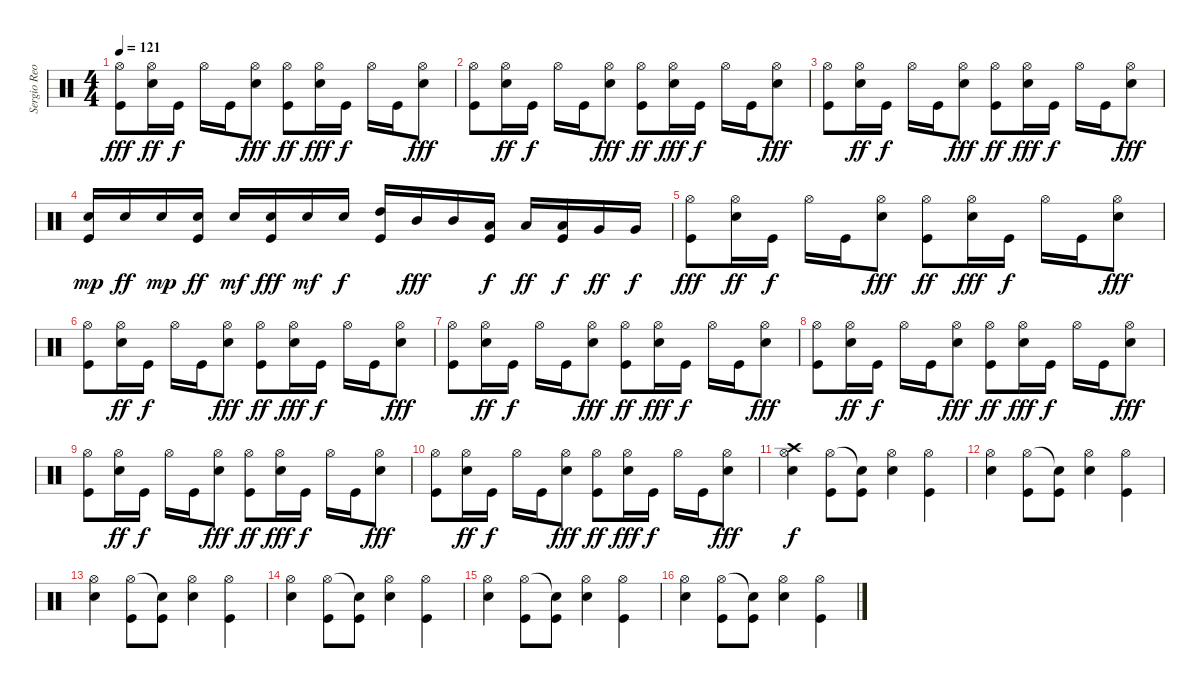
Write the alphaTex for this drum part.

\track ("Sergio Reoli" "Sergio Reo") {instrument percussion}
\staff {score}
\articulation defaults
\ts (4 4)
\tempo 121
\clef neutral
\ks c
("Kick (hit)" "Hi-Hat (open)").8{dy fff} ("Snare (hit) 2" "Hi-Hat (open)").16{dy ff} "Kick (hit)".16{dy f} "Hi-Hat (open)".16 "Kick (hit)".16 ("Snare (hit) 2" "Hi-Hat (open)").8{dy fff} ("Kick (hit)" "Hi-Hat (open)").8{dy ff} ("Snare (hit) 2" "Hi-Hat (open)").16{dy fff} "Kick (hit)".16{dy f} "Hi-Hat (open)".16 "Kick (hit)".16 ("Snare (hit) 2" "Hi-Hat (open)").8{dy fff} |
("Kick (hit)" "Hi-Hat (open)").8 ("Snare (hit) 2" "Hi-Hat (open)").16{dy ff} "Kick (hit)".16{dy f} "Hi-Hat (open)".16 "Kick (hit)".16 ("Snare (hit) 2" "Hi-Hat (open)").8{dy fff} ("Kick (hit)" "Hi-Hat (open)").8{dy ff} ("Snare (hit) 2" "Hi-Hat (open)").16{dy fff} "Kick (hit)".16{dy f} "Hi-Hat (open)".16 "Kick (hit)".16 ("Snare (hit) 2" "Hi-Hat (open)").8{dy fff} |
("Kick (hit)" "Hi-Hat (open)").8 ("Snare (hit) 2" "Hi-Hat (open)").16{dy ff} "Kick (hit)".16{dy f} "Hi-Hat (open)".16 "Kick (hit)".16 ("Snare (hit) 2" "Hi-Hat (open)").8{dy fff} ("Kick (hit)" "Hi-Hat (open)").8{dy ff} ("Snare (hit) 2" "Hi-Hat (open)").16{dy fff} "Kick (hit)".16{dy f} "Hi-Hat (open)".16 "Kick (hit)".16 ("Snare (hit) 2" "Hi-Hat (open)").8{dy fff} |
("Snare (hit) 2" "Kick (hit)").16{dy mp} "Snare (hit) 2".16{dy ff} "Snare (hit) 2".16{dy mp} ("Snare (hit) 2" "Kick (hit)").16{dy ff} "Snare (hit) 2".16{dy mf} ("Snare (hit) 2" "Kick (hit)").16{dy fff} "Snare (hit) 2".16{dy mf} "Snare (hit) 2".16{dy f} ("High Tom (hit)" "Kick (hit)").16 "Mid Tom (hit)".16{dy fff} "Mid Tom (hit)".16 ("Low Tom (hit)" "Kick (hit)").16{dy f} "Low Tom (hit)".16{dy ff} ("Low Tom (hit)" "Kick (hit)").16{dy f} "Very Low Tom (hit)".16{dy ff} "Very Low Tom (hit)".16{dy f} |
("Kick (hit)" "Hi-Hat (open)").8{dy fff} ("Snare (hit) 2" "Hi-Hat (open)").16{dy ff} "Kick (hit)".16{dy f} "Hi-Hat (open)".16 "Kick (hit)".16 ("Snare (hit) 2" "Hi-Hat (open)").8{dy fff} ("Kick (hit)" "Hi-Hat (open)").8{dy ff} ("Snare (hit) 2" "Hi-Hat (open)").16{dy fff} "Kick (hit)".16{dy f} "Hi-Hat (open)".16 "Kick (hit)".16 ("Snare (hit) 2" "Hi-Hat (open)").8{dy fff} |
("Kick (hit)" "Hi-Hat (open)").8 ("Snare (hit) 2" "Hi-Hat (open)").16{dy ff} "Kick (hit)".16{dy f} "Hi-Hat (open)".16 "Kick (hit)".16 ("Snare (hit) 2" "Hi-Hat (open)").8{dy fff} ("Kick (hit)" "Hi-Hat (open)").8{dy ff} ("Snare (hit) 2" "Hi-Hat (open)").16{dy fff} "Kick (hit)".16{dy f} "Hi-Hat (open)".16 "Kick (hit)".16 ("Snare (hit) 2" "Hi-Hat (open)").8{dy fff} |
("Kick (hit)" "Hi-Hat (open)").8 ("Snare (hit) 2" "Hi-Hat (open)").16{dy ff} "Kick (hit)".16{dy f} "Hi-Hat (open)".16 "Kick (hit)".16 ("Snare (hit) 2" "Hi-Hat (open)").8{dy fff} ("Kick (hit)" "Hi-Hat (open)").8{dy ff} ("Snare (hit) 2" "Hi-Hat (open)").16{dy fff} "Kick (hit)".16{dy f} "Hi-Hat (open)".16 "Kick (hit)".16 ("Snare (hit) 2" "Hi-Hat (open)").8{dy fff} |
("Kick (hit)" "Hi-Hat (open)").8 ("Snare (hit) 2" "Hi-Hat (open)").16{dy ff} "Kick (hit)".16{dy f} "Hi-Hat (open)".16 "Kick (hit)".16 ("Snare (hit) 2" "Hi-Hat (open)").8{dy fff} ("Kick (hit)" "Hi-Hat (open)").8{dy ff} ("Snare (hit) 2" "Hi-Hat (open)").16{dy fff} "Kick (hit)".16{dy f} "Hi-Hat (open)".16 "Kick (hit)".16 ("Snare (hit) 2" "Hi-Hat (open)").8{dy fff} |
("Kick (hit)" "Hi-Hat (open)").8 ("Snare (hit) 2" "Hi-Hat (open)").16{dy ff} "Kick (hit)".16{dy f} "Hi-Hat (open)".16 "Kick (hit)".16 ("Snare (hit) 2" "Hi-Hat (open)").8{dy fff} ("Kick (hit)" "Hi-Hat (open)").8{dy ff} ("Snare (hit) 2" "Hi-Hat (open)").16{dy fff} "Kick (hit)".16{dy f} "Hi-Hat (open)".16 "Kick (hit)".16 ("Snare (hit) 2" "Hi-Hat (open)").8{dy fff} |
("Kick (hit)" "Hi-Hat (open)").8 ("Snare (hit) 2" "Hi-Hat (open)").16{dy ff} "Kick (hit)".16{dy f} "Hi-Hat (open)".16 "Kick (hit)".16 ("Snare (hit) 2" "Hi-Hat (open)").8{dy fff} ("Kick (hit)" "Hi-Hat (open)").8{dy ff} ("Snare (hit) 2" "Hi-Hat (open)").16{dy fff} "Kick (hit)".16{dy f} "Hi-Hat (open)".16 "Kick (hit)".16 ("Snare (hit) 2" "Hi-Hat (open)").8{dy fff} |
("Snare (hit) 2" "Hi-Hat (open)" "Crash high (hit)").4{dy f} ("Hi-Hat (open)" "Kick (hit)").8 ("Snare (hit)"{t} "Kick (hit)").8 ("Snare (hit) 2" "Hi-Hat (open)").4 ("Hi-Hat (open)" "Kick (hit)").4 |
("Snare (hit) 2" "Hi-Hat (open)").4 ("Hi-Hat (open)" "Kick (hit)").8 ("Snare (hit)"{t} "Kick (hit)").8 ("Snare (hit) 2" "Hi-Hat (open)").4 ("Hi-Hat (open)" "Kick (hit)").4 |
("Snare (hit) 2" "Hi-Hat (open)").4 ("Hi-Hat (open)" "Kick (hit)").8 ("Snare (hit)"{t} "Kick (hit)").8 ("Snare (hit) 2" "Hi-Hat (open)").4 ("Hi-Hat (open)" "Kick (hit)").4 |
("Snare (hit) 2" "Hi-Hat (open)").4 ("Hi-Hat (open)" "Kick (hit)").8 ("Snare (hit)"{t} "Kick (hit)").8 ("Snare (hit) 2" "Hi-Hat (open)").4 ("Hi-Hat (open)" "Kick (hit)").4 |
("Snare (hit) 2" "Hi-Hat (open)").4 ("Hi-Hat (open)" "Kick (hit)").8 ("Snare (hit)"{t} "Kick (hit)").8 ("Snare (hit) 2" "Hi-Hat (open)").4 ("Hi-Hat (open)" "Kick (hit)").4 |
("Snare (hit) 2" "Hi-Hat (open)").4 ("Hi-Hat (open)" "Kick (hit)").8 ("Snare (hit)"{t} "Kick (hit)").8 ("Snare (hit) 2" "Hi-Hat (open)").4 ("Hi-Hat (open)" "Kick (hit)").4
